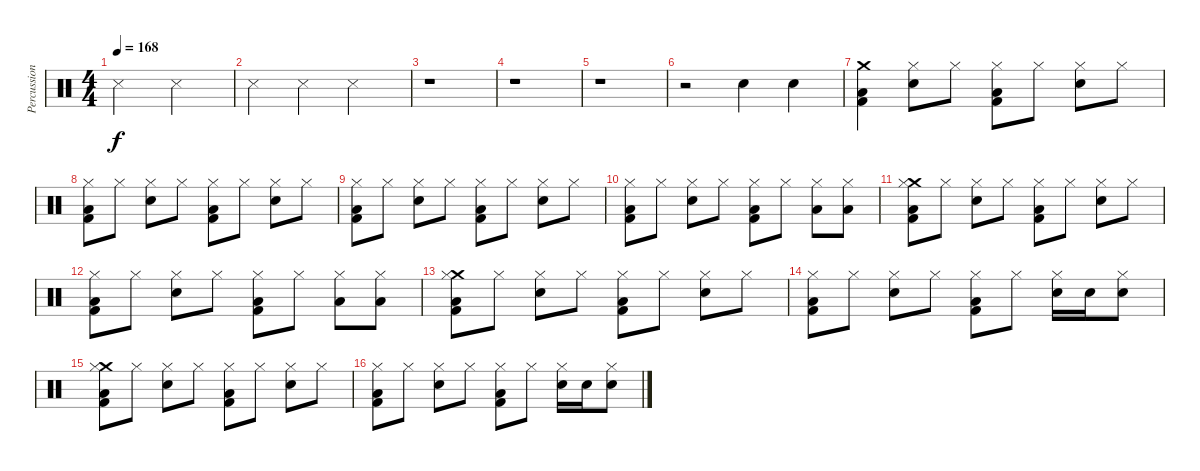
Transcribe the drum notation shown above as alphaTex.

\track ("Percussions" "Percussion") {instrument percussion}
\staff {score}
\articulation defaults
\ts (4 4)
\tempo 168
\clef neutral
\ks c "Metronome (hit)".2{dy f} "Metronome (hit)".2
|
"Metronome (hit)".4 "Metronome (hit)".4 "Metronome (hit)".2 |
r.1 |
r.1 |
r.1 |
r.2 "Snare (hit) 2".4 "Snare (hit) 2".4 |
("Kick (hit) 2" "Low Floor Tom (hit)" "Crash medium (hit)").4 ("Snare (hit) 2" "Hi-Hat (closed)").8 "Hi-Hat (closed)".8 ("Kick (hit) 2" "Low Floor Tom (hit)" "Hi-Hat (closed)").8 "Hi-Hat (closed)".8 ("Snare (hit) 2" "Hi-Hat (closed)").8 "Hi-Hat (closed)".8 |
("Kick (hit) 2" "Low Floor Tom (hit)" "Hi-Hat (closed)").8 "Hi-Hat (closed)".8 ("Snare (hit) 2" "Hi-Hat (closed)").8 "Hi-Hat (closed)".8 ("Kick (hit) 2" "Low Floor Tom (hit)" "Hi-Hat (closed)").8 "Hi-Hat (closed)".8 ("Snare (hit) 2" "Hi-Hat (closed)").8 "Hi-Hat (closed)".8 |
("Kick (hit) 2" "Low Floor Tom (hit)" "Hi-Hat (closed)").8 "Hi-Hat (closed)".8 ("Snare (hit) 2" "Hi-Hat (closed)").8 "Hi-Hat (closed)".8 ("Kick (hit) 2" "Low Floor Tom (hit)" "Hi-Hat (closed)").8 "Hi-Hat (closed)".8 ("Snare (hit) 2" "Hi-Hat (closed)").8 "Hi-Hat (closed)".8 |
("Kick (hit) 2" "Low Floor Tom (hit)" "Hi-Hat (closed)").8 "Hi-Hat (closed)".8 ("Snare (hit) 2" "Hi-Hat (closed)").8 "Hi-Hat (closed)".8 ("Kick (hit) 2" "Low Floor Tom (hit)" "Hi-Hat (closed)").8 "Hi-Hat (closed)".8 ("Low Tom (hit)" "Hi-Hat (closed)").8 ("Low Tom (hit)" "Hi-Hat (closed)").8 |
("Kick (hit) 2" "Low Floor Tom (hit)" "Crash medium (hit)" "Hi-Hat (closed)").8 "Hi-Hat (closed)".8 ("Snare (hit) 2" "Hi-Hat (closed)").8 "Hi-Hat (closed)".8 ("Kick (hit) 2" "Low Floor Tom (hit)" "Hi-Hat (closed)").8 "Hi-Hat (closed)".8 ("Snare (hit) 2" "Hi-Hat (closed)").8 "Hi-Hat (closed)".8 |
("Kick (hit) 2" "Low Floor Tom (hit)" "Hi-Hat (closed)").8 "Hi-Hat (closed)".8 ("Snare (hit) 2" "Hi-Hat (closed)").8 "Hi-Hat (closed)".8 ("Kick (hit) 2" "Low Floor Tom (hit)" "Hi-Hat (closed)").8 "Hi-Hat (closed)".8 ("Low Tom (hit)" "Hi-Hat (closed)").8 ("Low Tom (hit)" "Hi-Hat (closed)").8 |
("Kick (hit) 2" "Low Floor Tom (hit)" "Crash medium (hit)" "Hi-Hat (closed)").8 "Hi-Hat (closed)".8 ("Snare (hit) 2" "Hi-Hat (closed)").8 "Hi-Hat (closed)".8 ("Kick (hit) 2" "Low Floor Tom (hit)" "Hi-Hat (closed)").8 "Hi-Hat (closed)".8 ("Snare (hit) 2" "Hi-Hat (closed)").8 "Hi-Hat (closed)".8 |
("Kick (hit) 2" "Low Floor Tom (hit)" "Hi-Hat (closed)").8 "Hi-Hat (closed)".8 ("Snare (hit) 2" "Hi-Hat (closed)").8 "Hi-Hat (closed)".8 ("Kick (hit) 2" "Low Floor Tom (hit)" "Hi-Hat (closed)").8 "Hi-Hat (closed)".8 ("Snare (hit) 2" "Hi-Hat (closed)").16 "Snare (hit) 2".16 ("Snare (hit) 2" "Hi-Hat (closed)").8 |
("Kick (hit) 2" "Low Floor Tom (hit)" "Crash medium (hit)" "Hi-Hat (closed)").8 "Hi-Hat (closed)".8 ("Snare (hit) 2" "Hi-Hat (closed)").8 "Hi-Hat (closed)".8 ("Kick (hit) 2" "Low Floor Tom (hit)" "Hi-Hat (closed)").8 "Hi-Hat (closed)".8 ("Snare (hit) 2" "Hi-Hat (closed)").8 "Hi-Hat (closed)".8 |
("Kick (hit) 2" "Low Floor Tom (hit)" "Hi-Hat (closed)").8 "Hi-Hat (closed)".8 ("Snare (hit) 2" "Hi-Hat (closed)").8 "Hi-Hat (closed)".8 ("Kick (hit) 2" "Low Floor Tom (hit)" "Hi-Hat (closed)").8 "Hi-Hat (closed)".8 ("Snare (hit) 2" "Hi-Hat (closed)").16 "Snare (hit) 2".16 ("Snare (hit) 2" "Hi-Hat (closed)").8
